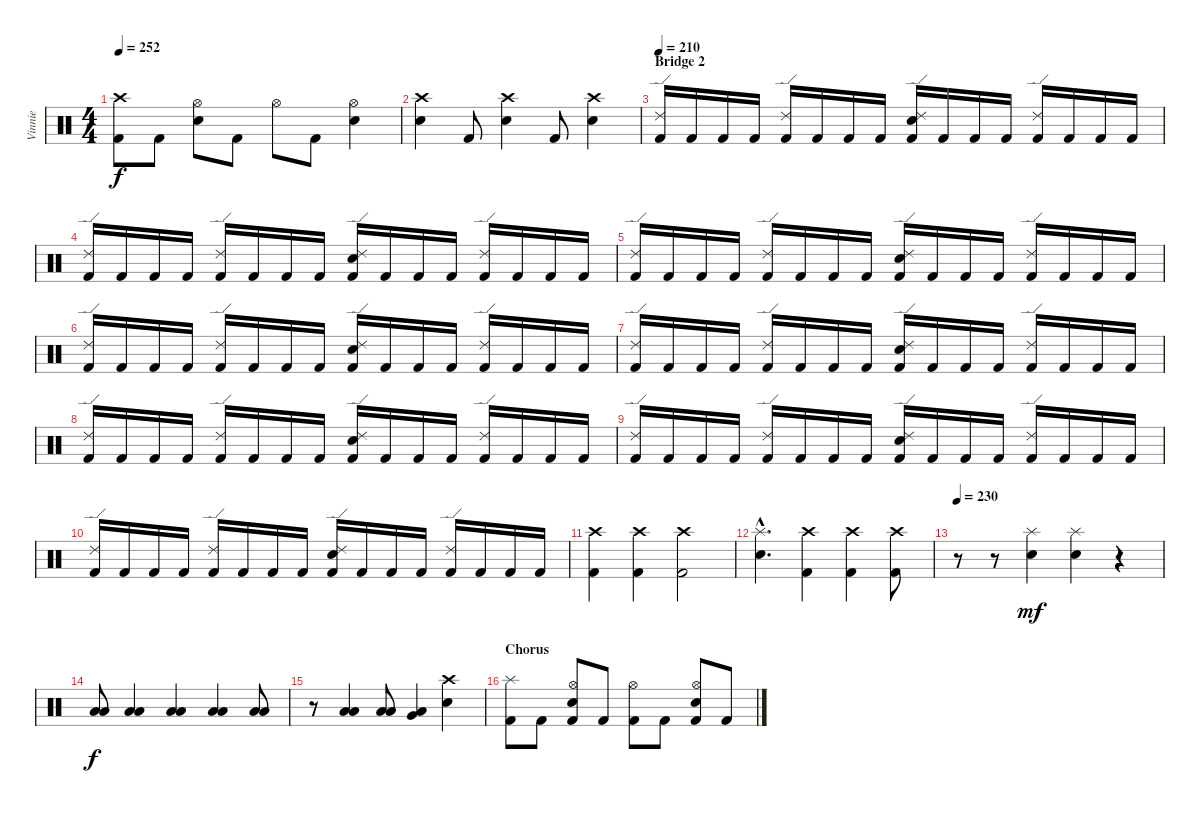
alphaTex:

\track ("Vinnie" "Vinnie") {instrument percussion}
\staff {score}
\articulation defaults
\ts (4 4)
\tempo 252
\clef neutral
\ks c
("Crash high (hit)" "Kick (hit) 2").8{dy f} "Kick (hit) 2".8 ("Hi-Hat (open)" "Snare (hit) 2").8 "Kick (hit) 2".8 "Hi-Hat (open)".8 "Kick (hit) 2".8 ("Hi-Hat (open)" "Snare (hit) 2").4 |
("Crash high (hit)" "Snare (hit) 2").4 "Kick (hit) 2".8 ("Crash high (hit)" "Snare (hit) 2").4 "Kick (hit) 2".8 ("Crash high (hit)" "Snare (hit) 2").4 |
\section ("" "Bridge 2")
\tempo 210
("Ride (edge) 2" "Kick (hit) 2").16 "Kick (hit) 2".16 "Kick (hit) 2".16 "Kick (hit) 2".16 ("Ride (edge) 2" "Kick (hit) 2").16 "Kick (hit) 2".16 "Kick (hit) 2".16 "Kick (hit) 2".16 ("Ride (edge) 2" "Snare (hit) 2" "Kick (hit) 2").16 "Kick (hit) 2".16 "Kick (hit) 2".16 "Kick (hit) 2".16 ("Ride (edge) 2" "Kick (hit) 2").16 "Kick (hit) 2".16 "Kick (hit) 2".16 "Kick (hit) 2".16 |
("Ride (edge) 2" "Kick (hit) 2").16 "Kick (hit) 2".16 "Kick (hit) 2".16 "Kick (hit) 2".16 ("Ride (edge) 2" "Kick (hit) 2").16 "Kick (hit) 2".16 "Kick (hit) 2".16 "Kick (hit) 2".16 ("Ride (edge) 2" "Snare (hit) 2" "Kick (hit) 2").16 "Kick (hit) 2".16 "Kick (hit) 2".16 "Kick (hit) 2".16 ("Ride (edge) 2" "Kick (hit) 2").16 "Kick (hit) 2".16 "Kick (hit) 2".16 "Kick (hit) 2".16 |
("Ride (edge) 2" "Kick (hit) 2").16 "Kick (hit) 2".16 "Kick (hit) 2".16 "Kick (hit) 2".16 ("Ride (edge) 2" "Kick (hit) 2").16 "Kick (hit) 2".16 "Kick (hit) 2".16 "Kick (hit) 2".16 ("Ride (edge) 2" "Snare (hit) 2" "Kick (hit) 2").16 "Kick (hit) 2".16 "Kick (hit) 2".16 "Kick (hit) 2".16 ("Ride (edge) 2" "Kick (hit) 2").16 "Kick (hit) 2".16 "Kick (hit) 2".16 "Kick (hit) 2".16 |
("Ride (edge) 2" "Kick (hit) 2").16 "Kick (hit) 2".16 "Kick (hit) 2".16 "Kick (hit) 2".16 ("Ride (edge) 2" "Kick (hit) 2").16 "Kick (hit) 2".16 "Kick (hit) 2".16 "Kick (hit) 2".16 ("Ride (edge) 2" "Snare (hit) 2" "Kick (hit) 2").16 "Kick (hit) 2".16 "Kick (hit) 2".16 "Kick (hit) 2".16 ("Ride (edge) 2" "Kick (hit) 2").16 "Kick (hit) 2".16 "Kick (hit) 2".16 "Kick (hit) 2".16 |
("Ride (edge) 2" "Kick (hit) 2").16 "Kick (hit) 2".16 "Kick (hit) 2".16 "Kick (hit) 2".16 ("Ride (edge) 2" "Kick (hit) 2").16 "Kick (hit) 2".16 "Kick (hit) 2".16 "Kick (hit) 2".16 ("Ride (edge) 2" "Snare (hit) 2" "Kick (hit) 2").16 "Kick (hit) 2".16 "Kick (hit) 2".16 "Kick (hit) 2".16 ("Ride (edge) 2" "Kick (hit) 2").16 "Kick (hit) 2".16 "Kick (hit) 2".16 "Kick (hit) 2".16 |
("Ride (edge) 2" "Kick (hit) 2").16 "Kick (hit) 2".16 "Kick (hit) 2".16 "Kick (hit) 2".16 ("Ride (edge) 2" "Kick (hit) 2").16 "Kick (hit) 2".16 "Kick (hit) 2".16 "Kick (hit) 2".16 ("Ride (edge) 2" "Snare (hit) 2" "Kick (hit) 2").16 "Kick (hit) 2".16 "Kick (hit) 2".16 "Kick (hit) 2".16 ("Ride (edge) 2" "Kick (hit) 2").16 "Kick (hit) 2".16 "Kick (hit) 2".16 "Kick (hit) 2".16 |
("Ride (edge) 2" "Kick (hit) 2").16 "Kick (hit) 2".16 "Kick (hit) 2".16 "Kick (hit) 2".16 ("Ride (edge) 2" "Kick (hit) 2").16 "Kick (hit) 2".16 "Kick (hit) 2".16 "Kick (hit) 2".16 ("Ride (edge) 2" "Snare (hit) 2" "Kick (hit) 2").16 "Kick (hit) 2".16 "Kick (hit) 2".16 "Kick (hit) 2".16 ("Ride (edge) 2" "Kick (hit) 2").16 "Kick (hit) 2".16 "Kick (hit) 2".16 "Kick (hit) 2".16 |
("Ride (edge) 2" "Kick (hit) 2").16 "Kick (hit) 2".16 "Kick (hit) 2".16 "Kick (hit) 2".16 ("Ride (edge) 2" "Kick (hit) 2").16 "Kick (hit) 2".16 "Kick (hit) 2".16 "Kick (hit) 2".16 ("Ride (edge) 2" "Snare (hit) 2" "Kick (hit) 2").16 "Kick (hit) 2".16 "Kick (hit) 2".16 "Kick (hit) 2".16 ("Ride (edge) 2" "Kick (hit) 2").16 "Kick (hit) 2".16 "Kick (hit) 2".16 "Kick (hit) 2".16 |
("Crash high (hit)" "Kick (hit) 2").4 ("Crash high (hit)" "Kick (hit) 2").4 ("Crash high (hit)" "Kick (hit) 2").2 |
("Splash (hit)"{hac} "Snare (hit) 2"{hac}).4{d} ("Crash high (hit)" "Kick (hit) 2").4 ("Crash high (hit)" "Kick (hit) 2").4 ("Crash high (hit)" "Kick (hit) 2").8 |
\tempo 230
r.8 r.8 ("Splash (hit)" "Snare (hit) 2").4{dy mf} ("Splash (hit)" "Snare (hit) 2").4 r.4 |
("Low Tom (hit)" "Low Floor Tom (hit)").8{dy f} ("Low Tom (hit)" "Low Floor Tom (hit)").4 ("Low Tom (hit)" "Low Floor Tom (hit)").4 ("Low Tom (hit)" "Low Floor Tom (hit)").4 ("Low Tom (hit)" "Low Floor Tom (hit)").8 |
r.8 ("Low Tom (hit)" "Low Floor Tom (hit)").4 ("Low Tom (hit)" "Low Floor Tom (hit)").8 ("Low Tom (hit)" "Very Low Tom (hit)").4 ("Crash high (hit)" "Snare (hit) 2").4 |
\section ("" "Chorus")
("Splash (hit)" "Kick (hit) 2").8 "Kick (hit) 2".8 ("Hi-Hat (open)" "Snare (hit) 2" "Kick (hit) 2").8 "Kick (hit) 2".8 ("Hi-Hat (open)" "Kick (hit) 2").8 "Kick (hit) 2".8 ("Hi-Hat (open)" "Snare (hit) 2" "Kick (hit) 2").8 "Kick (hit) 2".8
